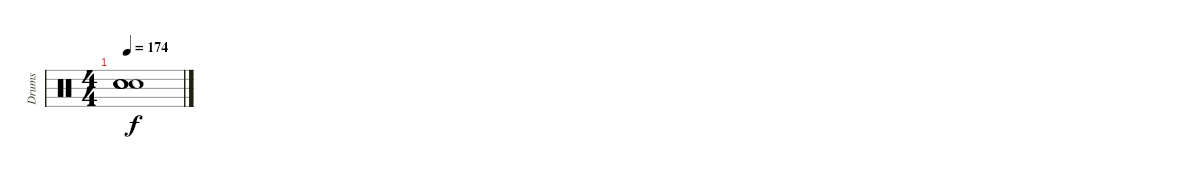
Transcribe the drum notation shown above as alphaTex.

\track ("Drums" "Drums") {instrument percussion}
\staff {score}
\articulation defaults
\ts (4 4)
\tempo 174
\clef neutral
\ks c
("Snare (hit)"{t} "Snare (hit)"{t} "Snare (hit)"{t} "Snare (hit)"{t}).1{dy f}
